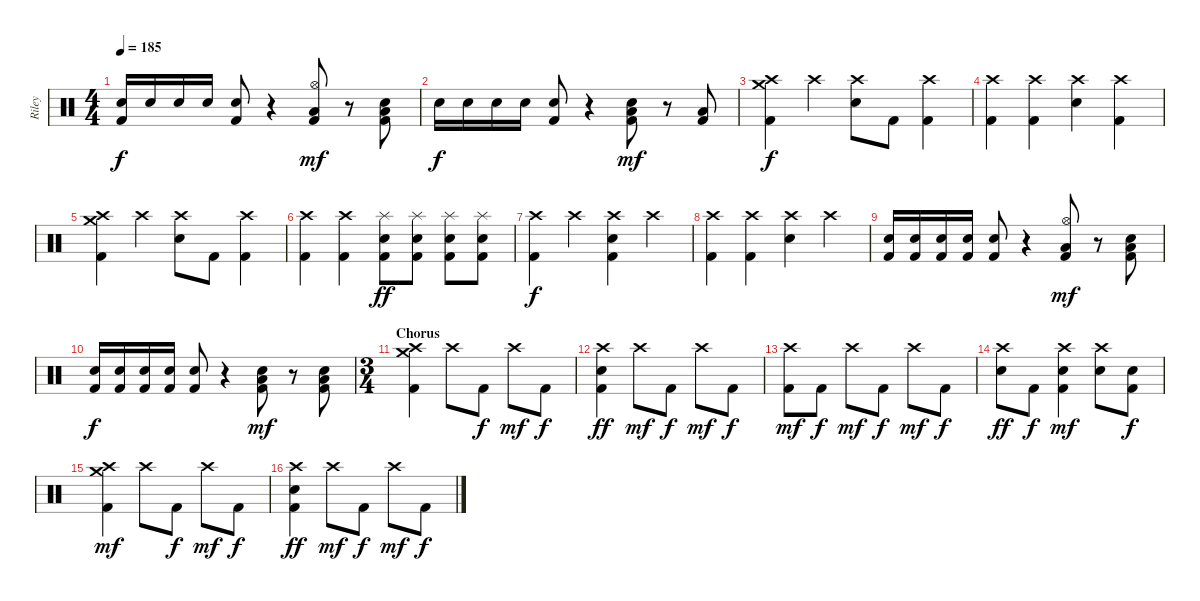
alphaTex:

\track ("Riley" "Riley") {instrument percussion}
\staff {score}
\articulation defaults
\ts (4 4)
\tempo 185
\clef neutral
\ks c
("Electric Snare (hit)" "Kick (hit) 2").16{dy f} "Electric Snare (hit)".16 "Electric Snare (hit)".16 "Electric Snare (hit)".16 ("Electric Snare (hit)" "Kick (hit) 2").8 r.4 ("Hi-Hat (open)" "Low Tom (hit)" "Kick (hit) 2").8{dy mf} r.8 ("Low Tom (hit)" "Electric Snare (hit)" "Kick (hit) 2").8 |
"Electric Snare (hit)".16{dy f} "Electric Snare (hit)".16 "Electric Snare (hit)".16 "Electric Snare (hit)".16 ("Electric Snare (hit)" "Kick (hit) 2").8 r.4 ("Low Floor Tom (hit)" "Electric Snare (hit)" "Kick (hit) 2").8{dy mf} r.8 ("Low Floor Tom (hit)" "Kick (hit) 2").8 |
("Crash medium (hit)" "Crash high (hit)" "Kick (hit) 2").4{dy f} "Crash high (hit)".4 ("Crash high (hit)" "Electric Snare (hit)").8 "Kick (hit) 2".8 ("Crash high (hit)" "Kick (hit) 2").4 |
("Crash high (hit)" "Kick (hit) 2").4 ("Crash high (hit)" "Kick (hit) 2").4 ("Crash high (hit)" "Electric Snare (hit)").4 ("Crash high (hit)" "Kick (hit) 2").4 |
("Crash medium (hit)" "Crash high (hit)" "Kick (hit) 2").4 "Crash high (hit)".4 ("Crash high (hit)" "Electric Snare (hit)").8 "Kick (hit) 2".8 ("Crash high (hit)" "Kick (hit) 2").4 |
("Crash high (hit)" "Kick (hit) 2").4 ("Crash high (hit)" "Kick (hit) 2").4 ("Splash (hit)" "Electric Snare (hit)" "Kick (hit) 2").8{dy ff} ("Splash (hit)" "Electric Snare (hit)" "Kick (hit) 2").8 ("Splash (hit)" "Electric Snare (hit)" "Kick (hit) 2").8 ("Splash (hit)" "Electric Snare (hit)" "Kick (hit) 2").8 |
("Crash high (hit)" "Kick (hit) 2").4{dy f} "Crash high (hit)".4 ("Crash high (hit)" "Electric Snare (hit)" "Kick (hit) 2").4 "Crash high (hit)".4 |
("Crash high (hit)" "Kick (hit) 2").4 ("Crash high (hit)" "Kick (hit) 2").4 ("Crash high (hit)" "Electric Snare (hit)").4 "Crash high (hit)".4 |
("Electric Snare (hit)" "Kick (hit) 2").16 ("Electric Snare (hit)" "Kick (hit) 2").16 ("Electric Snare (hit)" "Kick (hit) 2").16 ("Electric Snare (hit)" "Kick (hit) 2").16 ("Electric Snare (hit)" "Kick (hit) 2").8 r.4 ("Hi-Hat (open)" "Low Tom (hit)" "Kick (hit) 2").8{dy mf} r.8 ("Low Tom (hit)" "Electric Snare (hit)" "Kick (hit) 2").8 |
("Electric Snare (hit)" "Kick (hit) 2").16{dy f} ("Electric Snare (hit)" "Kick (hit) 2").16 ("Electric Snare (hit)" "Kick (hit) 2").16 ("Electric Snare (hit)" "Kick (hit) 2").16 ("Electric Snare (hit)" "Kick (hit) 2").8 r.4 ("Low Floor Tom (hit)" "Electric Snare (hit)" "Kick (hit) 2").8{dy mf} r.8 ("Low Floor Tom (hit)" "Electric Snare (hit)" "Kick (hit) 2").8 |
\ts (3 4)
\section ("" "Chorus")
("Crash high (hit)" "Crash medium (hit)" "Kick (hit) 2").4 "Crash high (hit)".8 "Kick (hit) 2".8{dy f} "Crash high (hit)".8{dy mf} "Kick (hit) 2".8{dy f} |
("Crash high (hit)" "Electric Snare (hit)" "Kick (hit) 2").4{dy ff} "Crash high (hit)".8{dy mf} "Kick (hit) 2".8{dy f} "Crash high (hit)".8{dy mf} "Kick (hit) 2".8{dy f} |
("Crash high (hit)" "Kick (hit) 2").8{dy mf} "Kick (hit) 2".8{dy f} "Crash high (hit)".8{dy mf} "Kick (hit) 2".8{dy f} "Crash high (hit)".8{dy mf} "Kick (hit) 2".8{dy f} |
("Crash high (hit)" "Electric Snare (hit)").8{dy ff} "Kick (hit) 2".8{dy f} ("Crash high (hit)" "Electric Snare (hit)" "Kick (hit) 2").4{dy mf} ("Crash high (hit)" "Electric Snare (hit)").8 ("Electric Snare (hit)" "Kick (hit) 2").8{dy f} |
("Crash high (hit)" "Crash medium (hit)" "Kick (hit) 2").4{dy mf} "Crash high (hit)".8 "Kick (hit) 2".8{dy f} "Crash high (hit)".8{dy mf} "Kick (hit) 2".8{dy f} |
("Crash high (hit)" "Electric Snare (hit)" "Kick (hit) 2").4{dy ff} "Crash high (hit)".8{dy mf} "Kick (hit) 2".8{dy f} "Crash high (hit)".8{dy mf} "Kick (hit) 2".8{dy f}
